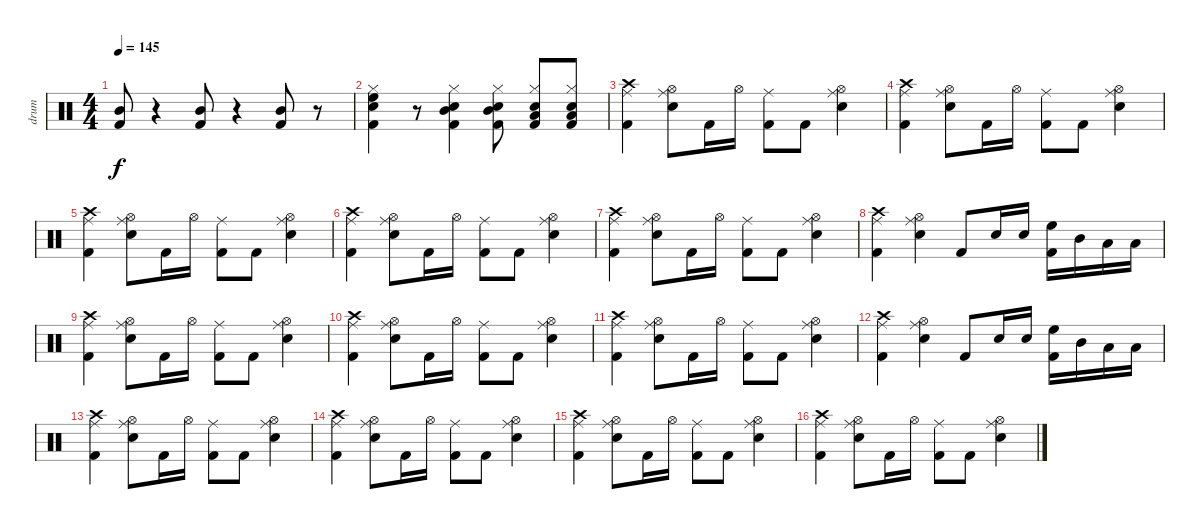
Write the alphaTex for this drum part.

\track ("drum" "drum") {instrument percussion}
\staff {score}
\articulation defaults
\ts (4 4)
\tempo 145
\clef neutral
\ks c
("Mid Tom (hit)" "Kick (hit) 2").8{dy f} r.4 ("Mid Tom (hit)" "Kick (hit) 2").8 r.4 ("Mid Tom (hit)" "Kick (hit) 2").8 r.8 |
("Snare (hit) 2" "High Floor Tom (hit)" "Hi-Hat (closed)" "Kick (hit) 2").4 r.8 ("Snare (hit) 2" "Mid Tom (hit)" "Hi-Hat (closed)" "Kick (hit) 2").4 ("Snare (hit) 2" "Mid Tom (hit)" "Hi-Hat (closed)" "Kick (hit) 2").8 ("Snare (hit) 2" "Low Tom (hit)" "Hi-Hat (closed)" "Kick (hit) 2").8 ("Snare (hit) 2" "Low Tom (hit)" "Hi-Hat (closed)" "Kick (hit) 2").8 |
("Crash high (hit)" "Ride (middle)" "Kick (hit) 2").4 ("Snare (hit) 2" "Ride (middle)" "Hi-Hat (open)").8 "Kick (hit) 2".16 "Hi-Hat (open)".16 ("Ride (middle)" "Kick (hit) 2").8 "Kick (hit) 2".8 ("Snare (hit) 2" "Ride (middle)" "Hi-Hat (open)").4 |
("Crash high (hit)" "Ride (middle)" "Kick (hit) 2").4 ("Snare (hit) 2" "Ride (middle)" "Hi-Hat (open)").8 "Kick (hit) 2".16 "Hi-Hat (open)".16 ("Ride (middle)" "Kick (hit) 2").8 "Kick (hit) 2".8 ("Snare (hit) 2" "Ride (middle)" "Hi-Hat (open)").4 |
("Crash high (hit)" "Ride (middle)" "Kick (hit) 2").4 ("Snare (hit) 2" "Ride (middle)" "Hi-Hat (open)").8 "Kick (hit) 2".16 "Hi-Hat (open)".16 ("Ride (middle)" "Kick (hit) 2").8 "Kick (hit) 2".8 ("Snare (hit) 2" "Ride (middle)" "Hi-Hat (open)").4 |
("Crash high (hit)" "Ride (middle)" "Kick (hit) 2").4 ("Snare (hit) 2" "Ride (middle)" "Hi-Hat (open)").8 "Kick (hit) 2".16 "Hi-Hat (open)".16 ("Ride (middle)" "Kick (hit) 2").8 "Kick (hit) 2".8 ("Snare (hit) 2" "Ride (middle)" "Hi-Hat (open)").4 |
("Crash high (hit)" "Ride (middle)" "Kick (hit) 2").4 ("Snare (hit) 2" "Ride (middle)" "Hi-Hat (open)").8 "Kick (hit) 2".16 "Hi-Hat (open)".16 ("Ride (middle)" "Kick (hit) 2").8 "Kick (hit) 2".8 ("Snare (hit) 2" "Ride (middle)" "Hi-Hat (open)").4 |
("Crash high (hit)" "Ride (middle)" "Kick (hit) 2").4 ("Snare (hit) 2" "Ride (middle)" "Hi-Hat (open)").4 "Kick (hit) 2".8 "Snare (hit) 2".16 "Snare (hit) 2".16 ("High Floor Tom (hit)" "Kick (hit) 2").16 "Mid Tom (hit)".16 "Low Tom (hit)".16 "Low Tom (hit)".16 |
("Crash high (hit)" "Ride (middle)" "Kick (hit) 2").4 ("Snare (hit) 2" "Ride (middle)" "Hi-Hat (open)").8 "Kick (hit) 2".16 "Hi-Hat (open)".16 ("Ride (middle)" "Kick (hit) 2").8 "Kick (hit) 2".8 ("Snare (hit) 2" "Ride (middle)" "Hi-Hat (open)").4 |
("Crash high (hit)" "Ride (middle)" "Kick (hit) 2").4 ("Snare (hit) 2" "Ride (middle)" "Hi-Hat (open)").8 "Kick (hit) 2".16 "Hi-Hat (open)".16 ("Ride (middle)" "Kick (hit) 2").8 "Kick (hit) 2".8 ("Snare (hit) 2" "Ride (middle)" "Hi-Hat (open)").4 |
("Crash high (hit)" "Ride (middle)" "Kick (hit) 2").4 ("Snare (hit) 2" "Ride (middle)" "Hi-Hat (open)").8 "Kick (hit) 2".16 "Hi-Hat (open)".16 ("Ride (middle)" "Kick (hit) 2").8 "Kick (hit) 2".8 ("Snare (hit) 2" "Ride (middle)" "Hi-Hat (open)").4 |
("Crash high (hit)" "Ride (middle)" "Kick (hit) 2").4 ("Snare (hit) 2" "Ride (middle)" "Hi-Hat (open)").4 "Kick (hit) 2".8 "Snare (hit) 2".16 "Snare (hit) 2".16 ("High Floor Tom (hit)" "Kick (hit) 2").16 "Mid Tom (hit)".16 "Low Tom (hit)".16 "Low Tom (hit)".16 |
("Crash high (hit)" "Ride (middle)" "Kick (hit) 2").4 ("Snare (hit) 2" "Ride (middle)" "Hi-Hat (open)").8 "Kick (hit) 2".16 "Hi-Hat (open)".16 ("Ride (middle)" "Kick (hit) 2").8 "Kick (hit) 2".8 ("Snare (hit) 2" "Ride (middle)" "Hi-Hat (open)").4 |
("Crash high (hit)" "Ride (middle)" "Kick (hit) 2").4 ("Snare (hit) 2" "Ride (middle)" "Hi-Hat (open)").8 "Kick (hit) 2".16 "Hi-Hat (open)".16 ("Ride (middle)" "Kick (hit) 2").8 "Kick (hit) 2".8 ("Snare (hit) 2" "Ride (middle)" "Hi-Hat (open)").4 |
("Crash high (hit)" "Ride (middle)" "Kick (hit) 2").4 ("Snare (hit) 2" "Ride (middle)" "Hi-Hat (open)").8 "Kick (hit) 2".16 "Hi-Hat (open)".16 ("Ride (middle)" "Kick (hit) 2").8 "Kick (hit) 2".8 ("Snare (hit) 2" "Ride (middle)" "Hi-Hat (open)").4 |
("Crash high (hit)" "Ride (middle)" "Kick (hit) 2").4 ("Snare (hit) 2" "Ride (middle)" "Hi-Hat (open)").8 "Kick (hit) 2".16 "Hi-Hat (open)".16 ("Ride (middle)" "Kick (hit) 2").8 "Kick (hit) 2".8 ("Snare (hit) 2" "Ride (middle)" "Hi-Hat (open)").4
